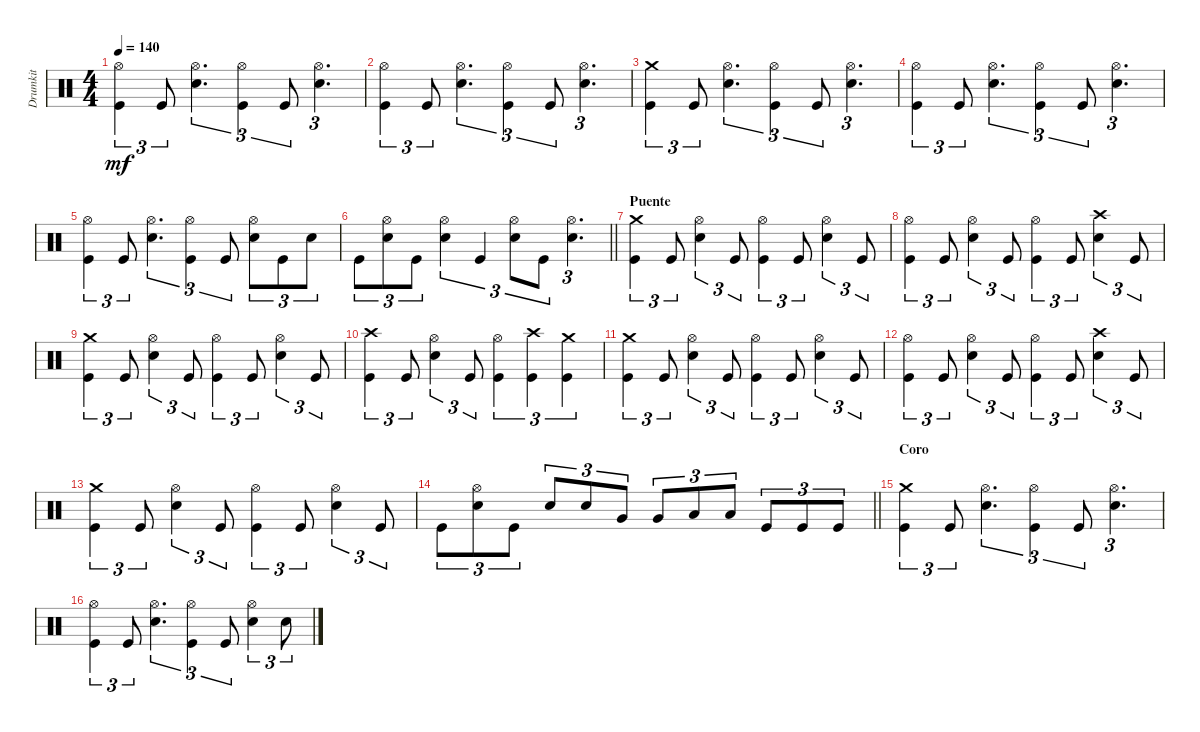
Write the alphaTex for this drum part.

\track ("Drumkit" "Drumkit") {instrument percussion}
\staff {score}
\articulation defaults
\ts (4 4)
\tempo 140
\clef neutral
\ks c
("Kick (hit)" "Hi-Hat (open)").4{tu (3 2) dy mf} "Kick (hit)".8{tu (3 2)} ("Snare (hit) 2" "Hi-Hat (open)").4{d tu (3 2)} ("Kick (hit)" "Hi-Hat (open)").4{tu (3 2)} "Kick (hit)".8{tu (3 2)} ("Snare (hit) 2" "Hi-Hat (open)").4{d tu (3 2)} |
("Kick (hit)" "Hi-Hat (open)").4{tu (3 2)} "Kick (hit)".8{tu (3 2)} ("Snare (hit) 2" "Hi-Hat (open)").4{d tu (3 2)} ("Kick (hit)" "Hi-Hat (open)").4{tu (3 2)} "Kick (hit)".8{tu (3 2)} ("Snare (hit) 2" "Hi-Hat (open)").4{d tu (3 2)} |
("Crash medium (hit)" "Kick (hit)").4{tu (3 2)} "Kick (hit)".8{tu (3 2)} ("Snare (hit) 2" "Hi-Hat (open)").4{d tu (3 2)} ("Kick (hit)" "Hi-Hat (open)").4{tu (3 2)} "Kick (hit)".8{tu (3 2)} ("Snare (hit) 2" "Hi-Hat (open)").4{d tu (3 2)} |
("Kick (hit)" "Hi-Hat (open)").4{tu (3 2)} "Kick (hit)".8{tu (3 2)} ("Snare (hit) 2" "Hi-Hat (open)").4{d tu (3 2)} ("Kick (hit)" "Hi-Hat (open)").4{tu (3 2)} "Kick (hit)".8{tu (3 2)} ("Snare (hit) 2" "Hi-Hat (open)").4{d tu (3 2)} |
("Kick (hit)" "Hi-Hat (open)").4{tu (3 2)} "Kick (hit)".8{tu (3 2)} ("Snare (hit) 2" "Hi-Hat (open)").4{d tu (3 2)} ("Kick (hit)" "Hi-Hat (open)").4{tu (3 2)} "Kick (hit)".8{tu (3 2)} ("Snare (hit) 2" "Hi-Hat (open)").8{tu (3 2)} "Kick (hit)".8{tu (3 2)} "Snare (hit) 2".8{tu (3 2)} |
\barLineRight lightlight "Kick (hit)".8{tu (3 2)}
("Snare (hit) 2" "Hi-Hat (open)").8{tu (3 2)} "Kick (hit)".8{tu (3 2)} ("Snare (hit) 2" "Hi-Hat (open)").4{tu (3 2)} "Kick (hit)".4{tu (3 2)} ("Snare (hit) 2" "Hi-Hat (open)").8{tu (3 2)} "Kick (hit)".8{tu (3 2)} ("Snare (hit) 2" "Hi-Hat (open)").4{d tu (3 2)} |
\section ("" "Puente")
("Crash medium (hit)" "Kick (hit)").4{tu (3 2)} "Kick (hit)".8{tu (3 2)} ("Snare (hit) 2" "Hi-Hat (open)").4{tu (3 2)} "Kick (hit)".8{tu (3 2)} ("Kick (hit)" "Hi-Hat (open)").4{tu (3 2)} "Kick (hit)".8{tu (3 2)} ("Snare (hit) 2" "Hi-Hat (open)").4{tu (3 2)} "Kick (hit)".8{tu (3 2)} |
("Kick (hit)" "Hi-Hat (open)").4{tu (3 2)} "Kick (hit)".8{tu (3 2)} ("Snare (hit) 2" "Hi-Hat (open)").4{tu (3 2)} "Kick (hit)".8{tu (3 2)} ("Kick (hit)" "Hi-Hat (open)").4{tu (3 2)} "Kick (hit)".8{tu (3 2)} ("Snare (hit) 2" "Crash high (hit)").4{tu (3 2)} "Kick (hit)".8{tu (3 2)} |
("Kick (hit)" "Crash medium (hit)").4{tu (3 2)} "Kick (hit)".8{tu (3 2)} ("Snare (hit) 2" "Hi-Hat (open)").4{tu (3 2)} "Kick (hit)".8{tu (3 2)} ("Kick (hit)" "Hi-Hat (open)").4{tu (3 2)} "Kick (hit)".8{tu (3 2)} ("Snare (hit) 2" "Hi-Hat (open)").4{tu (3 2)} "Kick (hit)".8{tu (3 2)} |
("Kick (hit)" "Crash high (hit)").4{tu (3 2)} "Kick (hit)".8{tu (3 2)} ("Snare (hit) 2" "Hi-Hat (open)").4{tu (3 2)} "Kick (hit)".8{tu (3 2)} ("Kick (hit)" "Hi-Hat (open)").4{tu (3 2)} ("Kick (hit)" "Crash high (hit)").4{tu (3 2)} ("Kick (hit)" "Crash medium (hit)").4{tu (3 2)} |
("Crash medium (hit)" "Kick (hit)").4{tu (3 2)} "Kick (hit)".8{tu (3 2)} ("Snare (hit) 2" "Hi-Hat (open)").4{tu (3 2)} "Kick (hit)".8{tu (3 2)} ("Kick (hit)" "Hi-Hat (open)").4{tu (3 2)} "Kick (hit)".8{tu (3 2)} ("Snare (hit) 2" "Hi-Hat (open)").4{tu (3 2)} "Kick (hit)".8{tu (3 2)} |
("Kick (hit)" "Hi-Hat (open)").4{tu (3 2)} "Kick (hit)".8{tu (3 2)} ("Snare (hit) 2" "Hi-Hat (open)").4{tu (3 2)} "Kick (hit)".8{tu (3 2)} ("Kick (hit)" "Hi-Hat (open)").4{tu (3 2)} "Kick (hit)".8{tu (3 2)} ("Snare (hit) 2" "Crash high (hit)").4{tu (3 2)} "Kick (hit)".8{tu (3 2)} |
("Kick (hit)" "Crash medium (hit)").4{tu (3 2)} "Kick (hit)".8{tu (3 2)} ("Snare (hit) 2" "Hi-Hat (open)").4{tu (3 2)} "Kick (hit)".8{tu (3 2)} ("Kick (hit)" "Hi-Hat (open)").4{tu (3 2)} "Kick (hit)".8{tu (3 2)} ("Snare (hit) 2" "Hi-Hat (open)").4{tu (3 2)} "Kick (hit)".8{tu (3 2)} |
\barLineRight lightlight "Kick (hit)".8{tu (3 2)}
("Snare (hit) 2" "Hi-Hat (open)").8{tu (3 2)} "Kick (hit)".8{tu (3 2)} "Snare (hit) 2".8{tu (3 2)} "Snare (hit) 2".8{tu (3 2)} "Very Low Tom (hit)".8{tu (3 2)} "Very Low Tom (hit)".8{tu (3 2)} "Low Floor Tom (hit)".8{tu (3 2)} "Low Floor Tom (hit)".8{tu (3 2)} "Kick (hit)".8{tu (3 2)} "Kick (hit)".8{tu (3 2)} "Kick (hit)".8{tu (3 2)} |
\section ("" "Coro")
("Crash medium (hit)" "Kick (hit)").4{tu (3 2)} "Kick (hit)".8{tu (3 2)} ("Snare (hit) 2" "Hi-Hat (open)").4{d tu (3 2)} ("Kick (hit)" "Hi-Hat (open)").4{tu (3 2)} "Kick (hit)".8{tu (3 2)} ("Snare (hit) 2" "Hi-Hat (open)").4{d tu (3 2)} |
("Kick (hit)" "Hi-Hat (open)").4{tu (3 2)} "Kick (hit)".8{tu (3 2)} ("Snare (hit) 2" "Hi-Hat (open)").4{d tu (3 2)} ("Kick (hit)" "Hi-Hat (open)").4{tu (3 2)} "Kick (hit)".8{tu (3 2)} ("Snare (hit) 2" "Hi-Hat (open)").4{tu (3 2)} "Snare (hit) 2".8{tu (3 2)}
